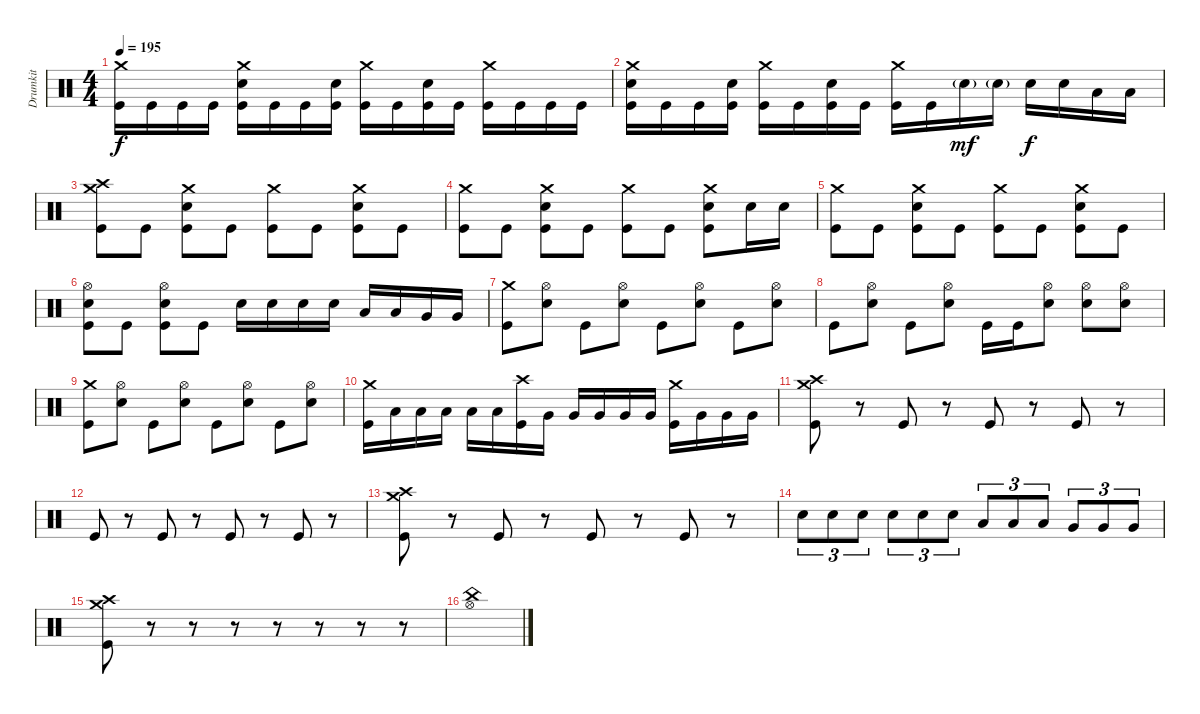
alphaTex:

\track ("Drumkit" "Drumkit") {instrument percussion}
\staff {score}
\articulation defaults
\ts (4 4)
\tempo 195
\clef neutral
\ks c
("Crash medium (hit)" "Kick (hit)").16{dy f} "Kick (hit)".16 "Kick (hit)".16 "Kick (hit)".16 ("Crash medium (hit)" "Snare (hit) 2" "Kick (hit)").16 "Kick (hit)".16 "Kick (hit)".16 ("Snare (hit) 2" "Kick (hit)").16 ("Crash medium (hit)" "Kick (hit)").16 "Kick (hit)".16 ("Snare (hit) 2" "Kick (hit)").16 "Kick (hit)".16 ("Crash medium (hit)" "Kick (hit)").16 "Kick (hit)".16 "Kick (hit)".16 "Kick (hit)".16 |
("Crash medium (hit)" "Snare (hit) 2" "Kick (hit)").16 "Kick (hit)".16 "Kick (hit)".16 ("Snare (hit) 2" "Kick (hit)").16 ("Crash medium (hit)" "Kick (hit)").16 "Kick (hit)".16 ("Snare (hit) 2" "Kick (hit)").16 "Kick (hit)".16 ("Crash medium (hit)" "Kick (hit)").16 "Kick (hit)".16 "Snare (hit) 2"{g}.16{dy mf} "Snare (hit) 2"{g}.16 "Snare (hit) 2".16{dy f} "Snare (hit) 2".16 "Low Tom (hit)".16 "Low Tom (hit)".16 |
("Crash medium (hit)" "Crash high (hit)" "Kick (hit)").8 "Kick (hit)".8 ("Crash medium (hit)" "Snare (hit) 2" "Kick (hit)").8 "Kick (hit)".8 ("Crash medium (hit)" "Kick (hit)").8 "Kick (hit)".8 ("Crash medium (hit)" "Snare (hit) 2" "Kick (hit)").8 "Kick (hit)".8 |
("Crash medium (hit)" "Kick (hit)").8 "Kick (hit)".8 ("Crash medium (hit)" "Snare (hit) 2" "Kick (hit)").8 "Kick (hit)".8 ("Crash medium (hit)" "Kick (hit)").8 "Kick (hit)".8 ("Crash medium (hit)" "Snare (hit) 2" "Kick (hit)").8 "Snare (hit) 2".16 "Snare (hit) 2".16 |
("Crash medium (hit)" "Kick (hit)").8 "Kick (hit)".8 ("Crash medium (hit)" "Snare (hit) 2" "Kick (hit)").8 "Kick (hit)".8 ("Crash medium (hit)" "Kick (hit)").8 "Kick (hit)".8 ("Crash medium (hit)" "Snare (hit) 2" "Kick (hit)").8 "Kick (hit)".8 |
("Hi-Hat (open)" "Snare (hit) 2" "Kick (hit)").8 "Kick (hit)".8 ("Hi-Hat (open)" "Snare (hit) 2" "Kick (hit)").8 "Kick (hit)".8 "Snare (hit) 2".16 "Snare (hit) 2".16 "Snare (hit) 2".16 "Snare (hit) 2".16 "Low Tom (hit)".16 "Low Tom (hit)".16 "Very Low Tom (hit)".16 "Very Low Tom (hit)".16 |
("Crash medium (hit)" "Kick (hit)").8 ("Hi-Hat (open)" "Snare (hit) 2").8 "Kick (hit)".8 ("Hi-Hat (open)" "Snare (hit) 2").8 "Kick (hit)".8 ("Hi-Hat (open)" "Snare (hit) 2").8 "Kick (hit)".8 ("Hi-Hat (open)" "Snare (hit) 2").8 |
"Kick (hit)".8 ("Hi-Hat (open)" "Snare (hit) 2").8 "Kick (hit)".8 ("Hi-Hat (open)" "Snare (hit) 2").8 "Kick (hit)".16 "Kick (hit)".16 ("Hi-Hat (open)" "Snare (hit) 2").8 ("Hi-Hat (open)" "Snare (hit) 2").8 ("Hi-Hat (open)" "Snare (hit) 2").8 |
("Crash medium (hit)" "Kick (hit)").8 ("Hi-Hat (open)" "Snare (hit) 2").8 "Kick (hit)".8 ("Hi-Hat (open)" "Snare (hit) 2").8 "Kick (hit)".8 ("Hi-Hat (open)" "Snare (hit) 2").8 "Kick (hit)".8 ("Hi-Hat (open)" "Snare (hit) 2").8 |
("Crash medium (hit)" "Kick (hit)").16 "Low Tom (hit)".16 "Low Tom (hit)".16 "Low Tom (hit)".16 "Low Tom (hit)".16 "Low Tom (hit)".16 ("Crash high (hit)" "Kick (hit)").16 "Very Low Tom (hit)".16 "Very Low Tom (hit)".16 "Very Low Tom (hit)".16 "Very Low Tom (hit)".16 "Very Low Tom (hit)".16 ("Crash medium (hit)" "Kick (hit)").16 "Very Low Tom (hit)".16 "Very Low Tom (hit)".16 "Very Low Tom (hit)".16 |
("Crash medium (hit)" "Crash high (hit)" "Kick (hit)").8 r.8 "Kick (hit)".8 r.8 "Kick (hit)".8 r.8 "Kick (hit)".8 r.8 |
"Kick (hit)".8 r.8 "Kick (hit)".8 r.8 "Kick (hit)".8 r.8 "Kick (hit)".8 r.8 |
("Crash medium (hit)" "Crash high (hit)" "Kick (hit)").8 r.8 "Kick (hit)".8 r.8 "Kick (hit)".8 r.8 "Kick (hit)".8 r.8 |
"Snare (hit) 2".8{tu (3 2)} "Snare (hit) 2".8{tu (3 2)} "Snare (hit) 2".8{tu (3 2)} "Snare (hit) 2".8{tu (3 2)} "Snare (hit) 2".8{tu (3 2)} "Snare (hit) 2".8{tu (3 2)} "Low Tom (hit)".8{tu (3 2)} "Low Tom (hit)".8{tu (3 2)} "Low Tom (hit)".8{tu (3 2)} "Very Low Tom (hit)".8{tu (3 2)} "Very Low Tom (hit)".8{tu (3 2)} "Very Low Tom (hit)".8{tu (3 2)} |
("Crash medium (hit)" "Crash high (hit)" "Kick (hit)").8 r.8 r.8 r.8 r.8 r.8 r.8 r.8 |
("China (hit)" "Hi-Hat (open)").1
